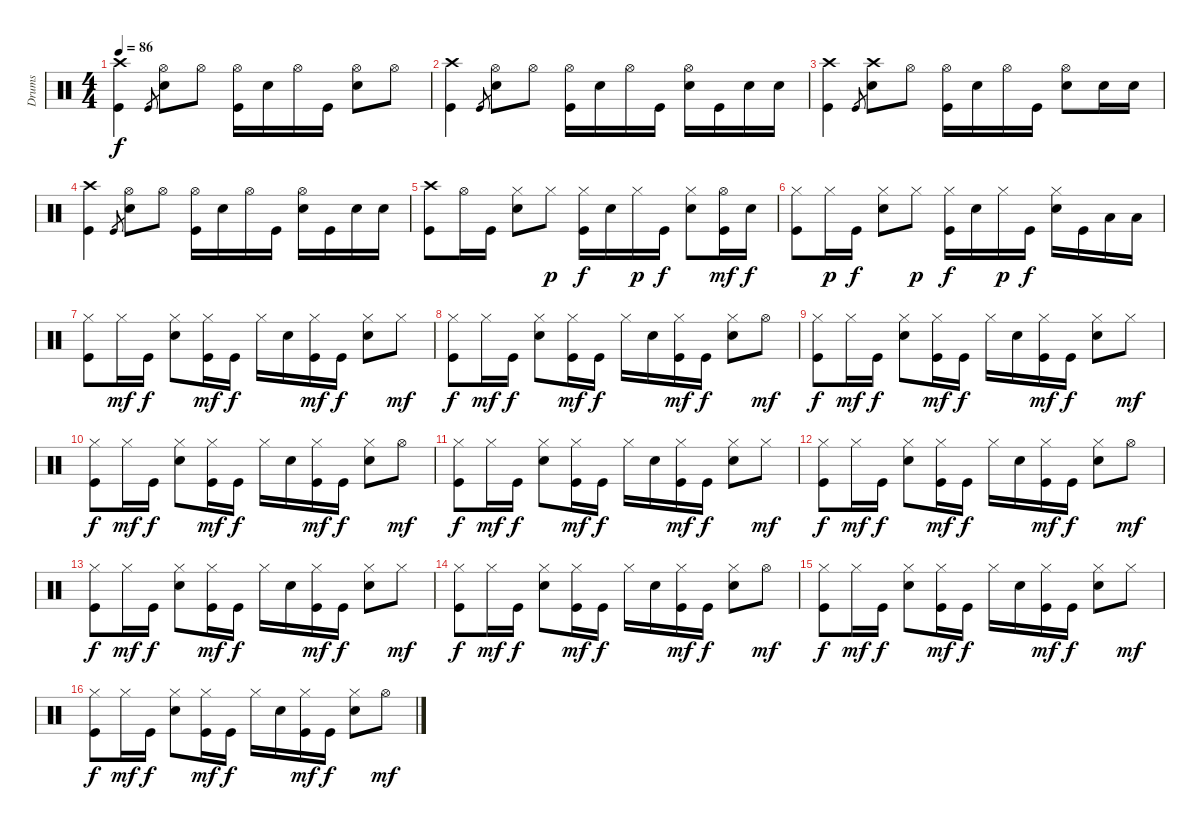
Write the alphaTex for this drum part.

\track ("Drums" "Drums") {instrument percussion}
\staff {score}
\articulation defaults
\ts (4 4)
\tempo 86
\clef neutral
\ks c
("Crash high (hit)" "Kick (hit)").4{dy f} "Kick (hit)".8{gr} ("Hi-Hat (open)" "Snare (hit) 2").8 "Hi-Hat (open)".8 ("Hi-Hat (open)" "Kick (hit)").16 "Snare (hit) 2".16 "Hi-Hat (open)".16 "Kick (hit)".16 ("Hi-Hat (open)" "Snare (hit) 2").8 "Hi-Hat (open)".8 |
("Crash high (hit)" "Kick (hit)").4 "Kick (hit)".8{gr} ("Hi-Hat (open)" "Snare (hit) 2").8 "Hi-Hat (open)".8 ("Hi-Hat (open)" "Kick (hit)").16 "Snare (hit) 2".16 "Hi-Hat (open)".16 "Kick (hit)".16 ("Hi-Hat (open)" "Snare (hit) 2").16 "Kick (hit)".16 "Snare (hit) 2".16 "Snare (hit) 2".16 |
("Crash high (hit)" "Kick (hit)").4 "Kick (hit)".8{gr} ("Crash high (hit)" "Snare (hit) 2").8 "Hi-Hat (open)".8 ("Hi-Hat (open)" "Kick (hit)").16 "Snare (hit) 2".16 "Hi-Hat (open)".16 "Kick (hit)".16 ("Hi-Hat (open)" "Snare (hit) 2").8 "Snare (hit) 2".16 "Snare (hit) 2".16 |
("Crash high (hit)" "Kick (hit)").4 "Kick (hit)".8{gr} ("Hi-Hat (open)" "Snare (hit) 2").8 "Hi-Hat (open)".8 ("Hi-Hat (open)" "Kick (hit)").16 "Snare (hit) 2".16 "Hi-Hat (open)".16 "Kick (hit)".16 ("Hi-Hat (open)" "Snare (hit) 2").16 "Kick (hit)".16 "Snare (hit) 2".16 "Snare (hit) 2".16 |
("Crash high (hit)" "Kick (hit)").8 "Hi-Hat (open)".16 "Kick (hit)".16 ("Hi-Hat (closed)" "Snare (hit) 2").8 "Hi-Hat (closed)".8{dy p} ("Hi-Hat (closed)" "Kick (hit)").16{dy f} "Snare (hit) 2".16 "Hi-Hat (closed)".16{dy p} "Kick (hit)".16{dy f} ("Hi-Hat (closed)" "Snare (hit) 2").8 ("Hi-Hat (open)" "Kick (hit)").16{dy mf} "Snare (hit) 2".16{dy f} |
("Hi-Hat (closed)" "Kick (hit)").8 "Hi-Hat (closed)".16{dy p} "Kick (hit)".16{dy f} ("Hi-Hat (closed)" "Snare (hit) 2").8 "Hi-Hat (closed)".8{dy p} ("Hi-Hat (closed)" "Kick (hit)").16{dy f} "Snare (hit) 2".16 "Hi-Hat (closed)".16{dy p} "Kick (hit)".16{dy f} ("Hi-Hat (closed)" "Snare (hit) 2").16 "Kick (hit)".16 "Low Tom (hit)".16 "Low Tom (hit)".16 |
("Hi-Hat (closed)" "Kick (hit)").8 "Hi-Hat (closed)".16{dy mf} "Kick (hit)".16{dy f} ("Hi-Hat (closed)" "Snare (hit) 2").8 ("Hi-Hat (closed)" "Kick (hit)").16{dy mf} "Kick (hit)".16{dy f} "Hi-Hat (closed)".16 "Snare (hit) 2".16 ("Hi-Hat (closed)" "Kick (hit)").16{dy mf} "Kick (hit)".16{dy f} ("Hi-Hat (closed)" "Snare (hit) 2").8 "Hi-Hat (closed)".8{dy mf} |
("Hi-Hat (closed)" "Kick (hit)").8{dy f} "Hi-Hat (closed)".16{dy mf} "Kick (hit)".16{dy f} ("Hi-Hat (closed)" "Snare (hit) 2").8 ("Hi-Hat (closed)" "Kick (hit)").16{dy mf} "Kick (hit)".16{dy f} "Hi-Hat (closed)".16 "Snare (hit) 2".16 ("Hi-Hat (closed)" "Kick (hit)").16{dy mf} "Kick (hit)".16{dy f} ("Hi-Hat (closed)" "Snare (hit) 2").8 "Hi-Hat (open)".8{dy mf} |
("Hi-Hat (closed)" "Kick (hit)").8{dy f} "Hi-Hat (closed)".16{dy mf} "Kick (hit)".16{dy f} ("Hi-Hat (closed)" "Snare (hit) 2").8 ("Hi-Hat (closed)" "Kick (hit)").16{dy mf} "Kick (hit)".16{dy f} "Hi-Hat (closed)".16 "Snare (hit) 2".16 ("Hi-Hat (closed)" "Kick (hit)").16{dy mf} "Kick (hit)".16{dy f} ("Hi-Hat (closed)" "Snare (hit) 2").8 "Hi-Hat (closed)".8{dy mf} |
("Hi-Hat (closed)" "Kick (hit)").8{dy f} "Hi-Hat (closed)".16{dy mf} "Kick (hit)".16{dy f} ("Hi-Hat (closed)" "Snare (hit) 2").8 ("Hi-Hat (closed)" "Kick (hit)").16{dy mf} "Kick (hit)".16{dy f} "Hi-Hat (closed)".16 "Snare (hit) 2".16 ("Hi-Hat (closed)" "Kick (hit)").16{dy mf} "Kick (hit)".16{dy f} ("Hi-Hat (closed)" "Snare (hit) 2").8 "Hi-Hat (open)".8{dy mf} |
("Hi-Hat (closed)" "Kick (hit)").8{dy f} "Hi-Hat (closed)".16{dy mf} "Kick (hit)".16{dy f} ("Hi-Hat (closed)" "Snare (hit) 2").8 ("Hi-Hat (closed)" "Kick (hit)").16{dy mf} "Kick (hit)".16{dy f} "Hi-Hat (closed)".16 "Snare (hit) 2".16 ("Hi-Hat (closed)" "Kick (hit)").16{dy mf} "Kick (hit)".16{dy f} ("Hi-Hat (closed)" "Snare (hit) 2").8 "Hi-Hat (closed)".8{dy mf} |
("Hi-Hat (closed)" "Kick (hit)").8{dy f} "Hi-Hat (closed)".16{dy mf} "Kick (hit)".16{dy f} ("Hi-Hat (closed)" "Snare (hit) 2").8 ("Hi-Hat (closed)" "Kick (hit)").16{dy mf} "Kick (hit)".16{dy f} "Hi-Hat (closed)".16 "Snare (hit) 2".16 ("Hi-Hat (closed)" "Kick (hit)").16{dy mf} "Kick (hit)".16{dy f} ("Hi-Hat (closed)" "Snare (hit) 2").8 "Hi-Hat (open)".8{dy mf} |
("Hi-Hat (closed)" "Kick (hit)").8{dy f} "Hi-Hat (closed)".16{dy mf} "Kick (hit)".16{dy f} ("Hi-Hat (closed)" "Snare (hit) 2").8 ("Hi-Hat (closed)" "Kick (hit)").16{dy mf} "Kick (hit)".16{dy f} "Hi-Hat (closed)".16 "Snare (hit) 2".16 ("Hi-Hat (closed)" "Kick (hit)").16{dy mf} "Kick (hit)".16{dy f} ("Hi-Hat (closed)" "Snare (hit) 2").8 "Hi-Hat (closed)".8{dy mf} |
("Hi-Hat (closed)" "Kick (hit)").8{dy f} "Hi-Hat (closed)".16{dy mf} "Kick (hit)".16{dy f} ("Hi-Hat (closed)" "Snare (hit) 2").8 ("Hi-Hat (closed)" "Kick (hit)").16{dy mf} "Kick (hit)".16{dy f} "Hi-Hat (closed)".16 "Snare (hit) 2".16 ("Hi-Hat (closed)" "Kick (hit)").16{dy mf} "Kick (hit)".16{dy f} ("Hi-Hat (closed)" "Snare (hit) 2").8 "Hi-Hat (open)".8{dy mf} |
("Hi-Hat (closed)" "Kick (hit)").8{dy f} "Hi-Hat (closed)".16{dy mf} "Kick (hit)".16{dy f} ("Hi-Hat (closed)" "Snare (hit) 2").8 ("Hi-Hat (closed)" "Kick (hit)").16{dy mf} "Kick (hit)".16{dy f} "Hi-Hat (closed)".16 "Snare (hit) 2".16 ("Hi-Hat (closed)" "Kick (hit)").16{dy mf} "Kick (hit)".16{dy f} ("Hi-Hat (closed)" "Snare (hit) 2").8 "Hi-Hat (closed)".8{dy mf} |
("Hi-Hat (closed)" "Kick (hit)").8{dy f} "Hi-Hat (closed)".16{dy mf} "Kick (hit)".16{dy f} ("Hi-Hat (closed)" "Snare (hit) 2").8 ("Hi-Hat (closed)" "Kick (hit)").16{dy mf} "Kick (hit)".16{dy f} "Hi-Hat (closed)".16 "Snare (hit) 2".16 ("Hi-Hat (closed)" "Kick (hit)").16{dy mf} "Kick (hit)".16{dy f} ("Hi-Hat (closed)" "Snare (hit) 2").8 "Hi-Hat (open)".8{dy mf}
